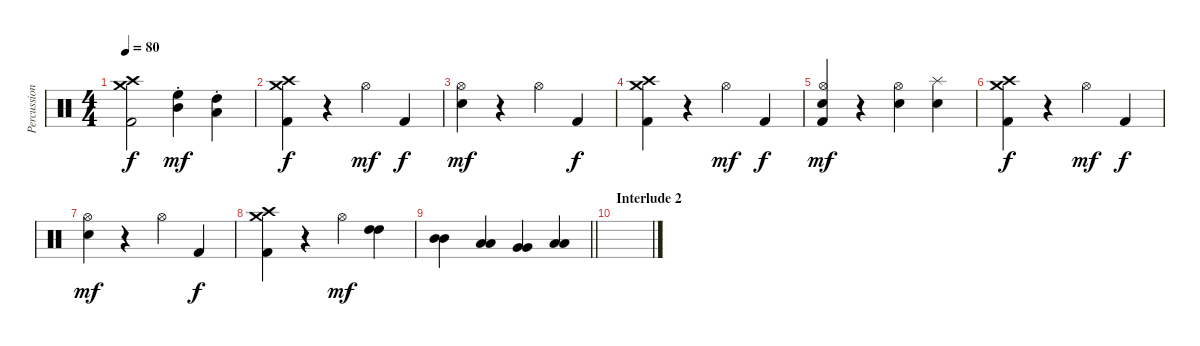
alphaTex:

\track ("Percussioni" "Percussion") {instrument percussion}
\staff {score}
\articulation defaults
\ts (4 4)
\tempo 80
\clef neutral
\ks c
("Crash high (hit)" "Crash medium (hit)" "Kick (hit) 2").2{dy f} ("Mid Tom (hit)"{st} "High Floor Tom (hit)"{st}).4{dy mf} ("Low Tom (hit)"{st} "High Tom (hit)"{st}).4 |
("Crash high (hit)" "Crash medium (hit)" "Kick (hit) 2").4{dy f} r.4 "Hi-Hat (open)".4{dy mf} "Kick (hit) 2".4{dy f} |
("Hi-Hat (open)" "Snare (hit) 2").4{dy mf} r.4 "Hi-Hat (open)".4 "Kick (hit) 2".4{dy f} |
("Crash high (hit)" "Crash medium (hit)" "Kick (hit) 2").4 r.4 "Hi-Hat (open)".4{dy mf} "Kick (hit) 2".4{dy f} |
("Hi-Hat (open)" "Snare (hit) 2" "Kick (hit) 2").4{dy mf} r.4 ("Hi-Hat (open)" "Snare (hit) 2").4 ("Splash (hit)" "Snare (hit) 2").4 |
("Crash high (hit)" "Crash medium (hit)" "Kick (hit) 2").4{dy f} r.4 "Hi-Hat (open)".4{dy mf} "Kick (hit) 2".4{dy f} |
("Hi-Hat (open)" "Snare (hit) 2").4{dy mf} r.4 "Hi-Hat (open)".4 "Kick (hit) 2".4{dy f} |
("Crash high (hit)" "Crash medium (hit)" "Kick (hit) 2").4 r.4 "Hi-Hat (open)".4{dy mf} ("High Tom (hit)" "High Tom (hit)").4 |
\barLineRight lightlight
("Mid Tom (hit)" "Mid Tom (hit)").4 ("Low Tom (hit)" "Low Tom (hit)").4 ("Very Low Tom (hit)" "Very Low Tom (hit)").4 ("Low Floor Tom (hit)" "Low Floor Tom (hit)").4 |
\section ("" "Interlude 2")
